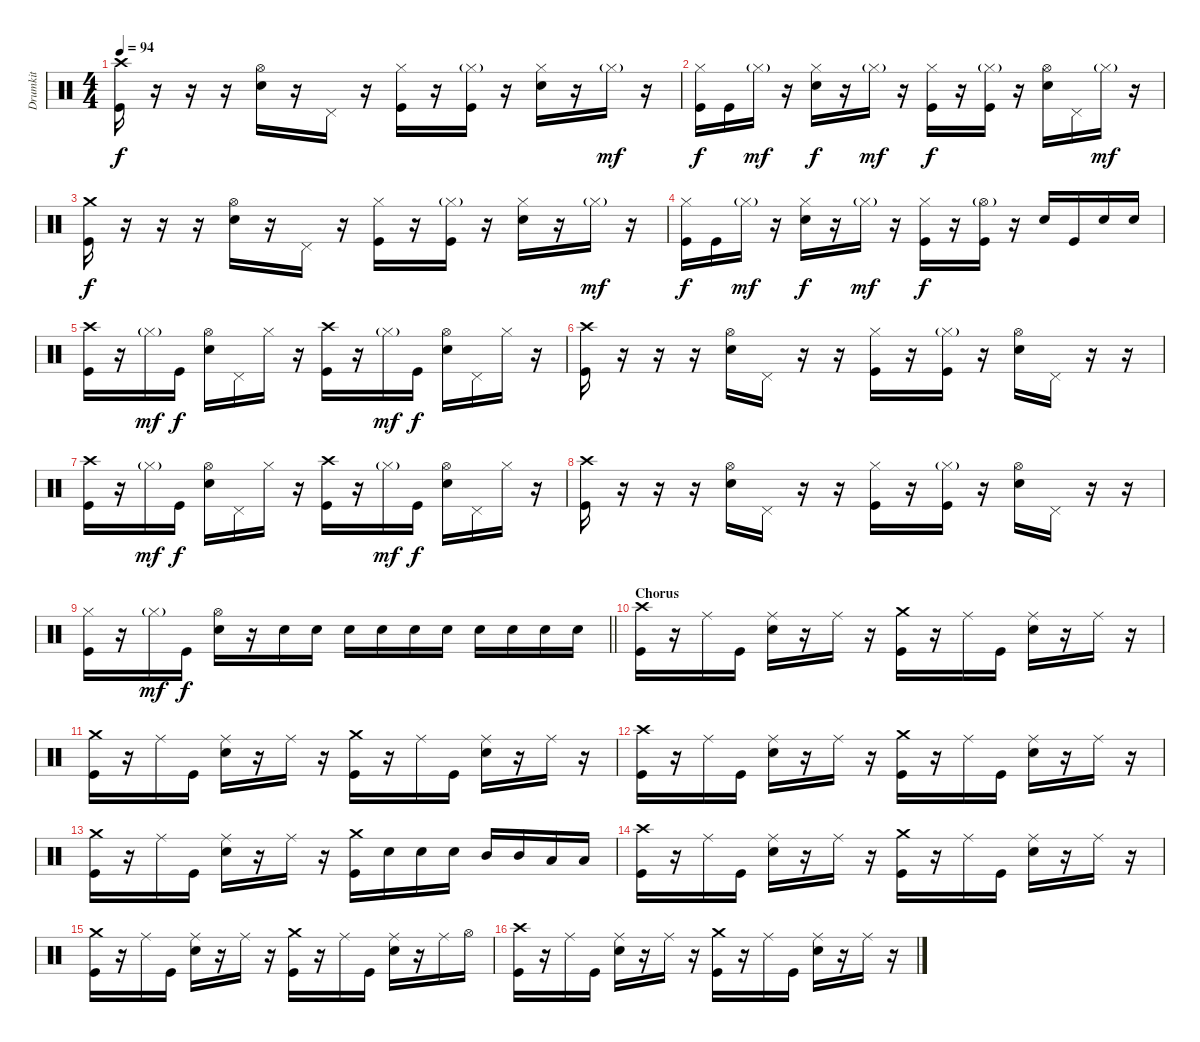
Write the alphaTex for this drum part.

\track ("Drumkit" "Drumkit") {instrument percussion}
\staff {score}
\articulation defaults
\ts (4 4)
\tempo 94
\clef neutral
\ks c
("Crash high (hit)" "Kick (hit)").16{dy f} r.16 r.16 r.16 ("Hi-Hat (open)" "Snare (hit) 2").16 r.16 "Pedal Hi-Hat (hit)".16 r.16 ("Hi-Hat (closed)" "Kick (hit)").16 r.16 ("Hi-Hat (closed)"{g} "Kick (hit)").16 r.16 ("Hi-Hat (closed)" "Snare (hit) 2").16 r.16 "Hi-Hat (closed)"{g}.16{dy mf} r.16 |
("Hi-Hat (closed)" "Kick (hit)").16{dy f} "Kick (hit)".16 "Hi-Hat (closed)"{g}.16{dy mf} r.16 ("Hi-Hat (closed)" "Snare (hit) 2").16{dy f} r.16 "Hi-Hat (closed)"{g}.16{dy mf} r.16 ("Hi-Hat (closed)" "Kick (hit)").16{dy f} r.16 ("Hi-Hat (closed)"{g} "Kick (hit)").16 r.16 ("Hi-Hat (open)" "Snare (hit) 2").16 "Pedal Hi-Hat (hit)".16 "Hi-Hat (closed)"{g}.16{dy mf} r.16 |
("Crash medium (hit)" "Kick (hit)").16{dy f} r.16 r.16 r.16 ("Hi-Hat (open)" "Snare (hit) 2").16 r.16 "Pedal Hi-Hat (hit)".16 r.16 ("Hi-Hat (closed)" "Kick (hit)").16 r.16 ("Hi-Hat (closed)"{g} "Kick (hit)").16 r.16 ("Hi-Hat (closed)" "Snare (hit) 2").16 r.16 "Hi-Hat (closed)"{g}.16{dy mf} r.16 |
("Hi-Hat (closed)" "Kick (hit)").16{dy f} "Kick (hit)".16 "Hi-Hat (closed)"{g}.16{dy mf} r.16 ("Hi-Hat (closed)" "Snare (hit) 2").16{dy f} r.16 "Hi-Hat (closed)"{g}.16{dy mf} r.16 ("Hi-Hat (closed)" "Kick (hit)").16{dy f} r.16 ("Hi-Hat (open)"{g} "Kick (hit)").16 r.16 "Snare (hit) 2".16 "Kick (hit)".16 "Snare (hit) 2".16 "Snare (hit) 2".16 |
("Crash high (hit)" "Kick (hit)").16 r.16 "Hi-Hat (closed)"{g}.16{dy mf} "Kick (hit)".16{dy f} ("Hi-Hat (open)" "Snare (hit) 2").16 "Pedal Hi-Hat (hit)".16 "Hi-Hat (closed)".16 r.16 ("Crash high (hit)" "Kick (hit)").16 r.16 "Hi-Hat (closed)"{g}.16{dy mf} "Kick (hit)".16{dy f} ("Hi-Hat (open)" "Snare (hit) 2").16 "Pedal Hi-Hat (hit)".16 "Hi-Hat (closed)".16 r.16 |
("Crash high (hit)" "Kick (hit)").16 r.16 r.16 r.16 ("Hi-Hat (open)" "Snare (hit) 2").16 "Pedal Hi-Hat (hit)".16 r.16 r.16 ("Hi-Hat (closed)" "Kick (hit)").16 r.16 ("Hi-Hat (closed)"{g} "Kick (hit)").16 r.16 ("Hi-Hat (open)" "Snare (hit) 2").16 "Pedal Hi-Hat (hit)".16 r.16 r.16 |
("Crash high (hit)" "Kick (hit)").16 r.16 "Hi-Hat (closed)"{g}.16{dy mf} "Kick (hit)".16{dy f} ("Hi-Hat (open)" "Snare (hit) 2").16 "Pedal Hi-Hat (hit)".16 "Hi-Hat (closed)".16 r.16 ("Crash high (hit)" "Kick (hit)").16 r.16 "Hi-Hat (closed)"{g}.16{dy mf} "Kick (hit)".16{dy f} ("Hi-Hat (open)" "Snare (hit) 2").16 "Pedal Hi-Hat (hit)".16 "Hi-Hat (closed)".16 r.16 |
("Crash high (hit)" "Kick (hit)").16 r.16 r.16 r.16 ("Hi-Hat (open)" "Snare (hit) 2").16 "Pedal Hi-Hat (hit)".16 r.16 r.16 ("Hi-Hat (closed)" "Kick (hit)").16 r.16 ("Hi-Hat (closed)"{g} "Kick (hit)").16 r.16 ("Hi-Hat (open)" "Snare (hit) 2").16 "Pedal Hi-Hat (hit)".16 r.16 r.16 |
\barLineRight lightlight
("Hi-Hat (closed)" "Kick (hit)").16 r.16 "Hi-Hat (closed)"{g}.16{dy mf} "Kick (hit)".16{dy f} ("Hi-Hat (open)" "Snare (hit) 2").16 r.16 "Snare (hit) 2".16 "Snare (hit) 2".16 "Snare (hit) 2".16 "Snare (hit) 2".16 "Snare (hit) 2".16 "Snare (hit) 2".16 "Snare (hit) 2".16 "Snare (hit) 2".16 "Snare (hit) 2".16 "Snare (hit) 2".16 |
\section ("" "Chorus")
("Crash high (hit)" "Kick (hit)").16 r.16 "Ride (middle)".16 "Kick (hit)".16 ("Ride (middle)" "Snare (hit) 2").16 r.16 "Ride (middle)".16 r.16 ("Crash medium (hit)" "Kick (hit)").16 r.16 "Ride (middle)".16 "Kick (hit)".16 ("Ride (middle)" "Snare (hit) 2").16 r.16 "Ride (middle)".16 r.16 |
("Crash medium (hit)" "Kick (hit)").16 r.16 "Ride (middle)".16 "Kick (hit)".16 ("Ride (middle)" "Snare (hit) 2").16 r.16 "Ride (middle)".16 r.16 ("Crash medium (hit)" "Kick (hit)").16 r.16 "Ride (middle)".16 "Kick (hit)".16 ("Ride (middle)" "Snare (hit) 2").16 r.16 "Ride (middle)".16 r.16 |
("Crash high (hit)" "Kick (hit)").16 r.16 "Ride (middle)".16 "Kick (hit)".16 ("Ride (middle)" "Snare (hit) 2").16 r.16 "Ride (middle)".16 r.16 ("Crash medium (hit)" "Kick (hit)").16 r.16 "Ride (middle)".16 "Kick (hit)".16 ("Ride (middle)" "Snare (hit) 2").16 r.16 "Ride (middle)".16 r.16 |
("Crash medium (hit)" "Kick (hit)").16 r.16 "Ride (middle)".16 "Kick (hit)".16 ("Ride (middle)" "Snare (hit) 2").16 r.16 "Ride (middle)".16 r.16 ("Crash medium (hit)" "Kick (hit)").16 "Snare (hit) 2".16 "Snare (hit) 2".16 "Snare (hit) 2".16 "Mid Tom (hit)".16 "Mid Tom (hit)".16 "Low Tom (hit)".16 "Low Tom (hit)".16 |
("Crash high (hit)" "Kick (hit)").16 r.16 "Ride (middle)".16 "Kick (hit)".16 ("Ride (middle)" "Snare (hit) 2").16 r.16 "Ride (middle)".16 r.16 ("Crash medium (hit)" "Kick (hit)").16 r.16 "Ride (middle)".16 "Kick (hit)".16 ("Ride (middle)" "Snare (hit) 2").16 r.16 "Ride (middle)".16 r.16 |
("Crash medium (hit)" "Kick (hit)").16 r.16 "Ride (middle)".16 "Kick (hit)".16 ("Ride (middle)" "Snare (hit) 2").16 r.16 "Ride (middle)".16 r.16 ("Crash medium (hit)" "Kick (hit)").16 r.16 "Ride (middle)".16 "Kick (hit)".16 ("Ride (middle)" "Snare (hit) 2").16 r.16 "Ride (middle)".16 "Hi-Hat (open)".16 |
("Crash high (hit)" "Kick (hit)").16 r.16 "Ride (middle)".16 "Kick (hit)".16 ("Ride (middle)" "Snare (hit) 2").16 r.16 "Ride (middle)".16 r.16 ("Crash medium (hit)" "Kick (hit)").16 r.16 "Ride (middle)".16 "Kick (hit)".16 ("Ride (middle)" "Snare (hit) 2").16 r.16 "Ride (middle)".16 r.16
